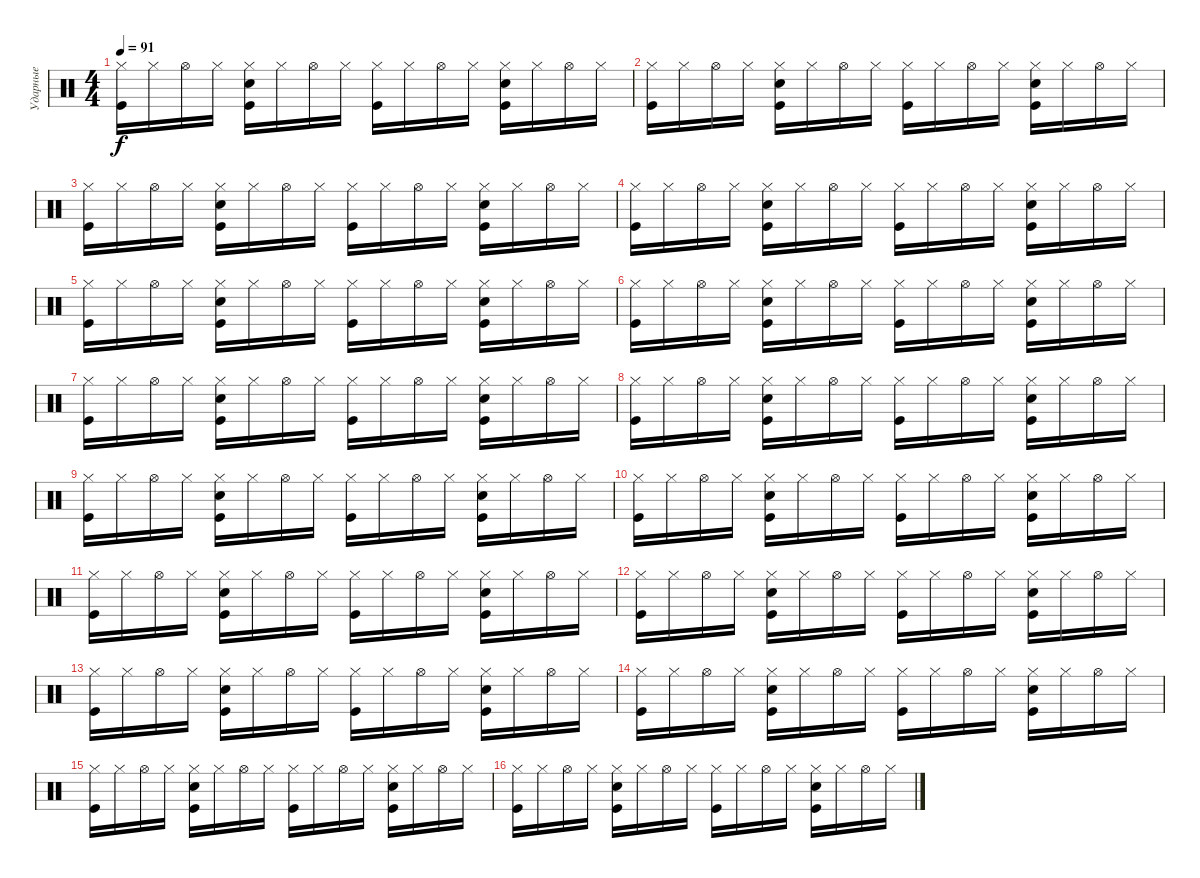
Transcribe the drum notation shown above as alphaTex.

\track ("Ударные" "Ударные") {instrument percussion}
\staff {score}
\articulation defaults
\ts (4 4)
\tempo 91
\clef neutral
\ks c
("Hi-Hat (closed)" "Kick (hit)").16{dy f} "Hi-Hat (closed)".16 "Hi-Hat (open)".16 "Hi-Hat (closed)".16 ("Hi-Hat (closed)" "Snare (hit) 2" "Kick (hit)").16 "Hi-Hat (closed)".16 "Hi-Hat (open)".16 "Hi-Hat (closed)".16 ("Hi-Hat (closed)" "Kick (hit)").16 "Hi-Hat (closed)".16 "Hi-Hat (open)".16 "Hi-Hat (closed)".16 ("Hi-Hat (closed)" "Snare (hit) 2" "Kick (hit)").16 "Hi-Hat (closed)".16 "Hi-Hat (open)".16 "Hi-Hat (closed)".16 |
("Hi-Hat (closed)" "Kick (hit)").16 "Hi-Hat (closed)".16 "Hi-Hat (open)".16 "Hi-Hat (closed)".16 ("Hi-Hat (closed)" "Snare (hit) 2" "Kick (hit)").16 "Hi-Hat (closed)".16 "Hi-Hat (open)".16 "Hi-Hat (closed)".16 ("Hi-Hat (closed)" "Kick (hit)").16 "Hi-Hat (closed)".16 "Hi-Hat (open)".16 "Hi-Hat (closed)".16 ("Hi-Hat (closed)" "Snare (hit) 2" "Kick (hit)").16 "Hi-Hat (closed)".16 "Hi-Hat (open)".16 "Hi-Hat (closed)".16 |
("Hi-Hat (closed)" "Kick (hit)").16 "Hi-Hat (closed)".16 "Hi-Hat (open)".16 "Hi-Hat (closed)".16 ("Hi-Hat (closed)" "Snare (hit) 2" "Kick (hit)").16 "Hi-Hat (closed)".16 "Hi-Hat (open)".16 "Hi-Hat (closed)".16 ("Hi-Hat (closed)" "Kick (hit)").16 "Hi-Hat (closed)".16 "Hi-Hat (open)".16 "Hi-Hat (closed)".16 ("Hi-Hat (closed)" "Snare (hit) 2" "Kick (hit)").16 "Hi-Hat (closed)".16 "Hi-Hat (open)".16 "Hi-Hat (closed)".16 |
("Hi-Hat (closed)" "Kick (hit)").16 "Hi-Hat (closed)".16 "Hi-Hat (open)".16 "Hi-Hat (closed)".16 ("Hi-Hat (closed)" "Snare (hit) 2" "Kick (hit)").16 "Hi-Hat (closed)".16 "Hi-Hat (open)".16 "Hi-Hat (closed)".16 ("Hi-Hat (closed)" "Kick (hit)").16 "Hi-Hat (closed)".16 "Hi-Hat (open)".16 "Hi-Hat (closed)".16 ("Hi-Hat (closed)" "Snare (hit) 2" "Kick (hit)").16 "Hi-Hat (closed)".16 "Hi-Hat (open)".16 "Hi-Hat (closed)".16 |
("Hi-Hat (closed)" "Kick (hit)").16 "Hi-Hat (closed)".16 "Hi-Hat (open)".16 "Hi-Hat (closed)".16 ("Hi-Hat (closed)" "Snare (hit) 2" "Kick (hit)").16 "Hi-Hat (closed)".16 "Hi-Hat (open)".16 "Hi-Hat (closed)".16 ("Hi-Hat (closed)" "Kick (hit)").16 "Hi-Hat (closed)".16 "Hi-Hat (open)".16 "Hi-Hat (closed)".16 ("Hi-Hat (closed)" "Snare (hit) 2" "Kick (hit)").16 "Hi-Hat (closed)".16 "Hi-Hat (open)".16 "Hi-Hat (closed)".16 |
("Hi-Hat (closed)" "Kick (hit)").16 "Hi-Hat (closed)".16 "Hi-Hat (open)".16 "Hi-Hat (closed)".16 ("Hi-Hat (closed)" "Snare (hit) 2" "Kick (hit)").16 "Hi-Hat (closed)".16 "Hi-Hat (open)".16 "Hi-Hat (closed)".16 ("Hi-Hat (closed)" "Kick (hit)").16 "Hi-Hat (closed)".16 "Hi-Hat (open)".16 "Hi-Hat (closed)".16 ("Hi-Hat (closed)" "Snare (hit) 2" "Kick (hit)").16 "Hi-Hat (closed)".16 "Hi-Hat (open)".16 "Hi-Hat (closed)".16 |
("Hi-Hat (closed)" "Kick (hit)").16 "Hi-Hat (closed)".16 "Hi-Hat (open)".16 "Hi-Hat (closed)".16 ("Hi-Hat (closed)" "Snare (hit) 2" "Kick (hit)").16 "Hi-Hat (closed)".16 "Hi-Hat (open)".16 "Hi-Hat (closed)".16 ("Hi-Hat (closed)" "Kick (hit)").16 "Hi-Hat (closed)".16 "Hi-Hat (open)".16 "Hi-Hat (closed)".16 ("Hi-Hat (closed)" "Snare (hit) 2" "Kick (hit)").16 "Hi-Hat (closed)".16 "Hi-Hat (open)".16 "Hi-Hat (closed)".16 |
("Hi-Hat (closed)" "Kick (hit)").16 "Hi-Hat (closed)".16 "Hi-Hat (open)".16 "Hi-Hat (closed)".16 ("Hi-Hat (closed)" "Snare (hit) 2" "Kick (hit)").16 "Hi-Hat (closed)".16 "Hi-Hat (open)".16 "Hi-Hat (closed)".16 ("Hi-Hat (closed)" "Kick (hit)").16 "Hi-Hat (closed)".16 "Hi-Hat (open)".16 "Hi-Hat (closed)".16 ("Hi-Hat (closed)" "Snare (hit) 2" "Kick (hit)").16 "Hi-Hat (closed)".16 "Hi-Hat (open)".16 "Hi-Hat (closed)".16 |
("Hi-Hat (closed)" "Kick (hit)").16 "Hi-Hat (closed)".16 "Hi-Hat (open)".16 "Hi-Hat (closed)".16 ("Hi-Hat (closed)" "Snare (hit) 2" "Kick (hit)").16 "Hi-Hat (closed)".16 "Hi-Hat (open)".16 "Hi-Hat (closed)".16 ("Hi-Hat (closed)" "Kick (hit)").16 "Hi-Hat (closed)".16 "Hi-Hat (open)".16 "Hi-Hat (closed)".16 ("Hi-Hat (closed)" "Snare (hit) 2" "Kick (hit)").16 "Hi-Hat (closed)".16 "Hi-Hat (open)".16 "Hi-Hat (closed)".16 |
("Hi-Hat (closed)" "Kick (hit)").16 "Hi-Hat (closed)".16 "Hi-Hat (open)".16 "Hi-Hat (closed)".16 ("Hi-Hat (closed)" "Snare (hit) 2" "Kick (hit)").16 "Hi-Hat (closed)".16 "Hi-Hat (open)".16 "Hi-Hat (closed)".16 ("Hi-Hat (closed)" "Kick (hit)").16 "Hi-Hat (closed)".16 "Hi-Hat (open)".16 "Hi-Hat (closed)".16 ("Hi-Hat (closed)" "Snare (hit) 2" "Kick (hit)").16 "Hi-Hat (closed)".16 "Hi-Hat (open)".16 "Hi-Hat (closed)".16 |
("Hi-Hat (closed)" "Kick (hit)").16 "Hi-Hat (closed)".16 "Hi-Hat (open)".16 "Hi-Hat (closed)".16 ("Hi-Hat (closed)" "Snare (hit) 2" "Kick (hit)").16 "Hi-Hat (closed)".16 "Hi-Hat (open)".16 "Hi-Hat (closed)".16 ("Hi-Hat (closed)" "Kick (hit)").16 "Hi-Hat (closed)".16 "Hi-Hat (open)".16 "Hi-Hat (closed)".16 ("Hi-Hat (closed)" "Snare (hit) 2" "Kick (hit)").16 "Hi-Hat (closed)".16 "Hi-Hat (open)".16 "Hi-Hat (closed)".16 |
("Hi-Hat (closed)" "Kick (hit)").16 "Hi-Hat (closed)".16 "Hi-Hat (open)".16 "Hi-Hat (closed)".16 ("Hi-Hat (closed)" "Snare (hit) 2" "Kick (hit)").16 "Hi-Hat (closed)".16 "Hi-Hat (open)".16 "Hi-Hat (closed)".16 ("Hi-Hat (closed)" "Kick (hit)").16 "Hi-Hat (closed)".16 "Hi-Hat (open)".16 "Hi-Hat (closed)".16 ("Hi-Hat (closed)" "Snare (hit) 2" "Kick (hit)").16 "Hi-Hat (closed)".16 "Hi-Hat (open)".16 "Hi-Hat (closed)".16 |
("Hi-Hat (closed)" "Kick (hit)").16 "Hi-Hat (closed)".16 "Hi-Hat (open)".16 "Hi-Hat (closed)".16 ("Hi-Hat (closed)" "Snare (hit) 2" "Kick (hit)").16 "Hi-Hat (closed)".16 "Hi-Hat (open)".16 "Hi-Hat (closed)".16 ("Hi-Hat (closed)" "Kick (hit)").16 "Hi-Hat (closed)".16 "Hi-Hat (open)".16 "Hi-Hat (closed)".16 ("Hi-Hat (closed)" "Snare (hit) 2" "Kick (hit)").16 "Hi-Hat (closed)".16 "Hi-Hat (open)".16 "Hi-Hat (closed)".16 |
("Hi-Hat (closed)" "Kick (hit)").16 "Hi-Hat (closed)".16 "Hi-Hat (open)".16 "Hi-Hat (closed)".16 ("Hi-Hat (closed)" "Snare (hit) 2" "Kick (hit)").16 "Hi-Hat (closed)".16 "Hi-Hat (open)".16 "Hi-Hat (closed)".16 ("Hi-Hat (closed)" "Kick (hit)").16 "Hi-Hat (closed)".16 "Hi-Hat (open)".16 "Hi-Hat (closed)".16 ("Hi-Hat (closed)" "Snare (hit) 2" "Kick (hit)").16 "Hi-Hat (closed)".16 "Hi-Hat (open)".16 "Hi-Hat (closed)".16 |
("Hi-Hat (closed)" "Kick (hit)").16 "Hi-Hat (closed)".16 "Hi-Hat (open)".16 "Hi-Hat (closed)".16 ("Hi-Hat (closed)" "Snare (hit) 2" "Kick (hit)").16 "Hi-Hat (closed)".16 "Hi-Hat (open)".16 "Hi-Hat (closed)".16 ("Hi-Hat (closed)" "Kick (hit)").16 "Hi-Hat (closed)".16 "Hi-Hat (open)".16 "Hi-Hat (closed)".16 ("Hi-Hat (closed)" "Snare (hit) 2" "Kick (hit)").16 "Hi-Hat (closed)".16 "Hi-Hat (open)".16 "Hi-Hat (closed)".16 |
("Hi-Hat (closed)" "Kick (hit)").16 "Hi-Hat (closed)".16 "Hi-Hat (open)".16 "Hi-Hat (closed)".16 ("Hi-Hat (closed)" "Snare (hit) 2" "Kick (hit)").16 "Hi-Hat (closed)".16 "Hi-Hat (open)".16 "Hi-Hat (closed)".16 ("Hi-Hat (closed)" "Kick (hit)").16 "Hi-Hat (closed)".16 "Hi-Hat (open)".16 "Hi-Hat (closed)".16 ("Hi-Hat (closed)" "Snare (hit) 2" "Kick (hit)").16 "Hi-Hat (closed)".16 "Hi-Hat (open)".16 "Hi-Hat (closed)".16
